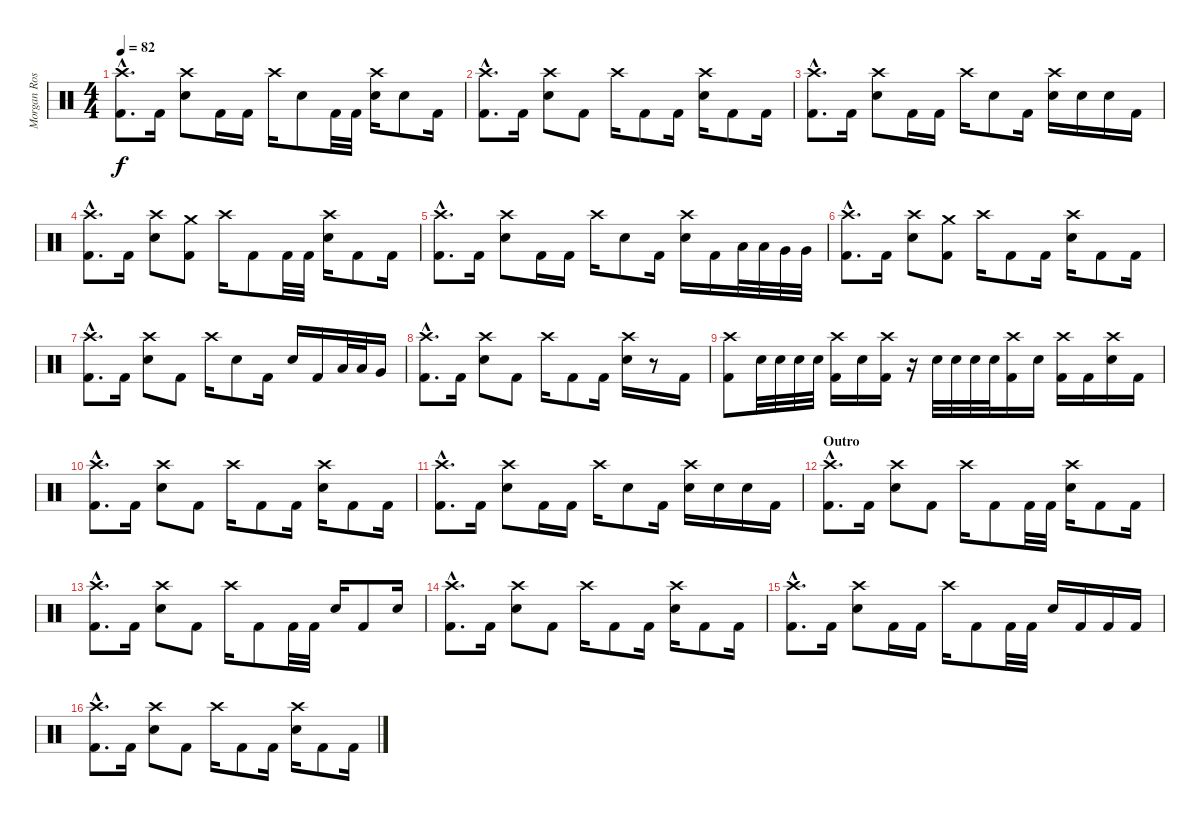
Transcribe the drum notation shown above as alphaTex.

\track ("Morgan Rose" "Morgan Ros") {instrument percussion}
\staff {score}
\articulation defaults
\ts (4 4)
\tempo 82
\clef neutral
\ks c
("Crash high (hit)"{hac} "Kick (hit) 2"{hac}).8{d dy f} "Kick (hit) 2".16 ("Crash high (hit)" "Electric Snare (hit)").8 "Kick (hit) 2".16 "Kick (hit) 2".16 "Crash high (hit)".16 "Electric Snare (hit)".8 "Kick (hit) 2".32 "Kick (hit) 2".32 ("Crash high (hit)" "Electric Snare (hit)").16 "Electric Snare (hit)".8 "Kick (hit) 2".16 |
("Crash high (hit)"{hac} "Kick (hit) 2"{hac}).8{d} "Kick (hit) 2".16 ("Crash high (hit)" "Electric Snare (hit)").8 "Kick (hit) 2".8 "Crash high (hit)".16 "Kick (hit) 2".8 "Kick (hit) 2".16 ("Crash high (hit)" "Electric Snare (hit)").16 "Kick (hit) 2".8 "Kick (hit) 2".16 |
("Crash high (hit)"{hac} "Kick (hit) 2"{hac}).8{d} "Kick (hit) 2".16 ("Crash high (hit)" "Electric Snare (hit)").8 "Kick (hit) 2".16 "Kick (hit) 2".16 "Crash high (hit)".16 "Electric Snare (hit)".8 "Kick (hit) 2".16 ("Crash high (hit)" "Electric Snare (hit)").16 "Electric Snare (hit)".16 "Electric Snare (hit)".16 "Kick (hit) 2".16 |
("Crash high (hit)"{hac} "Kick (hit) 2"{hac}).8{d} "Kick (hit) 2".16 ("Crash high (hit)" "Electric Snare (hit)").8 ("Crash medium (hit)" "Kick (hit) 2").8 "Crash high (hit)".16 "Kick (hit) 2".8 "Kick (hit) 2".32 "Kick (hit) 2".32 ("Crash high (hit)" "Electric Snare (hit)").16 "Kick (hit) 2".8 "Kick (hit) 2".16 |
("Crash high (hit)"{hac} "Kick (hit) 2"{hac}).8{d} "Kick (hit) 2".16 ("Crash high (hit)" "Electric Snare (hit)").8 "Kick (hit) 2".16 "Kick (hit) 2".16 "Crash high (hit)".16 "Electric Snare (hit)".8 "Kick (hit) 2".16 ("Crash high (hit)" "Electric Snare (hit)").16 "Kick (hit) 2".16 "Low Tom (hit)".32 "Low Tom (hit)".32 "Very Low Tom (hit)".32 "Very Low Tom (hit)".32 |
("Crash high (hit)"{hac} "Kick (hit) 2"{hac}).8{d} "Kick (hit) 2".16 ("Crash high (hit)" "Electric Snare (hit)").8 ("Crash medium (hit)" "Kick (hit) 2").8 "Crash high (hit)".16 "Kick (hit) 2".8 "Kick (hit) 2".16 ("Crash high (hit)" "Electric Snare (hit)").16 "Kick (hit) 2".8 "Kick (hit) 2".16 |
("Crash high (hit)"{hac} "Kick (hit) 2"{hac}).8{d} "Kick (hit) 2".16 ("Crash high (hit)" "Electric Snare (hit)").8 "Kick (hit) 2".8 "Crash high (hit)".16 "Electric Snare (hit)".8 "Kick (hit) 2".16 "Electric Snare (hit)".16 "Kick (hit) 2".16 "Low Tom (hit)".32 "Low Tom (hit)".32 "Very Low Tom (hit)".16 |
("Crash high (hit)"{hac} "Kick (hit) 2"{hac}).8{d} "Kick (hit) 2".16 ("Crash high (hit)" "Electric Snare (hit)").8 "Kick (hit) 2".8 "Crash high (hit)".16 "Kick (hit) 2".8 "Kick (hit) 2".16 ("Crash high (hit)" "Electric Snare (hit)").16 r.8 "Kick (hit) 2".16 |
("Crash high (hit)" "Kick (hit) 2").8 "Electric Snare (hit)".32 "Electric Snare (hit)".32 "Electric Snare (hit)".32 "Electric Snare (hit)".32 ("Crash high (hit)" "Kick (hit) 2").16 "Electric Snare (hit)".16 ("Crash high (hit)" "Kick (hit) 2").16 r.16 "Electric Snare (hit)".32 "Electric Snare (hit)".32 "Electric Snare (hit)".32 "Electric Snare (hit)".32 ("Crash high (hit)" "Kick (hit) 2").16 "Electric Snare (hit)".16 ("Crash high (hit)" "Kick (hit) 2").16 "Kick (hit) 2".16 ("Crash high (hit)" "Electric Snare (hit)").16 "Kick (hit) 2".16 |
("Crash high (hit)"{hac} "Kick (hit) 2"{hac}).8{d} "Kick (hit) 2".16 ("Crash high (hit)" "Electric Snare (hit)").8 "Kick (hit) 2".8 "Crash high (hit)".16 "Kick (hit) 2".8 "Kick (hit) 2".16 ("Crash high (hit)" "Electric Snare (hit)").16 "Kick (hit) 2".8 "Kick (hit) 2".16 |
("Crash high (hit)"{hac} "Kick (hit) 2"{hac}).8{d} "Kick (hit) 2".16 ("Crash high (hit)" "Electric Snare (hit)").8 "Kick (hit) 2".16 "Kick (hit) 2".16 "Crash high (hit)".16 "Electric Snare (hit)".8 "Kick (hit) 2".16 ("Crash high (hit)" "Electric Snare (hit)").16 "Electric Snare (hit)".16 "Electric Snare (hit)".16 "Kick (hit) 2".16 |
\section ("" "Outro")
("Crash high (hit)"{hac} "Kick (hit) 2"{hac}).8{d} "Kick (hit) 2".16 ("Crash high (hit)" "Electric Snare (hit)").8 "Kick (hit) 2".8 "Crash high (hit)".16 "Kick (hit) 2".8 "Kick (hit) 2".32 "Kick (hit) 2".32 ("Crash high (hit)" "Electric Snare (hit)").16 "Kick (hit) 2".8 "Kick (hit) 2".16 |
("Crash high (hit)"{hac} "Kick (hit) 2"{hac}).8{d} "Kick (hit) 2".16 ("Crash high (hit)" "Electric Snare (hit)").8 "Kick (hit) 2".8 "Crash high (hit)".16 "Kick (hit) 2".8 "Kick (hit) 2".32 "Kick (hit) 2".32 "Electric Snare (hit)".16 "Kick (hit) 2".8 "Electric Snare (hit)".16 |
("Crash high (hit)"{hac} "Kick (hit) 2"{hac}).8{d} "Kick (hit) 2".16 ("Crash high (hit)" "Electric Snare (hit)").8 "Kick (hit) 2".8 "Crash high (hit)".16 "Kick (hit) 2".8 "Kick (hit) 2".16 ("Crash high (hit)" "Electric Snare (hit)").16 "Kick (hit) 2".8 "Kick (hit) 2".16 |
("Crash high (hit)"{hac} "Kick (hit) 2"{hac}).8{d} "Kick (hit) 2".16 ("Crash high (hit)" "Electric Snare (hit)").8 "Kick (hit) 2".16 "Kick (hit) 2".16 "Crash high (hit)".16 "Kick (hit) 2".8 "Kick (hit) 2".32 "Kick (hit) 2".32 "Electric Snare (hit)".16 "Kick (hit) 2".16 "Kick (hit) 2".16 "Kick (hit) 2".16 |
("Crash high (hit)"{hac} "Kick (hit) 2"{hac}).8{d} "Kick (hit) 2".16 ("Crash high (hit)" "Electric Snare (hit)").8 "Kick (hit) 2".8 "Crash high (hit)".16 "Kick (hit) 2".8 "Kick (hit) 2".16 ("Crash high (hit)" "Electric Snare (hit)").16 "Kick (hit) 2".8 "Kick (hit) 2".16
